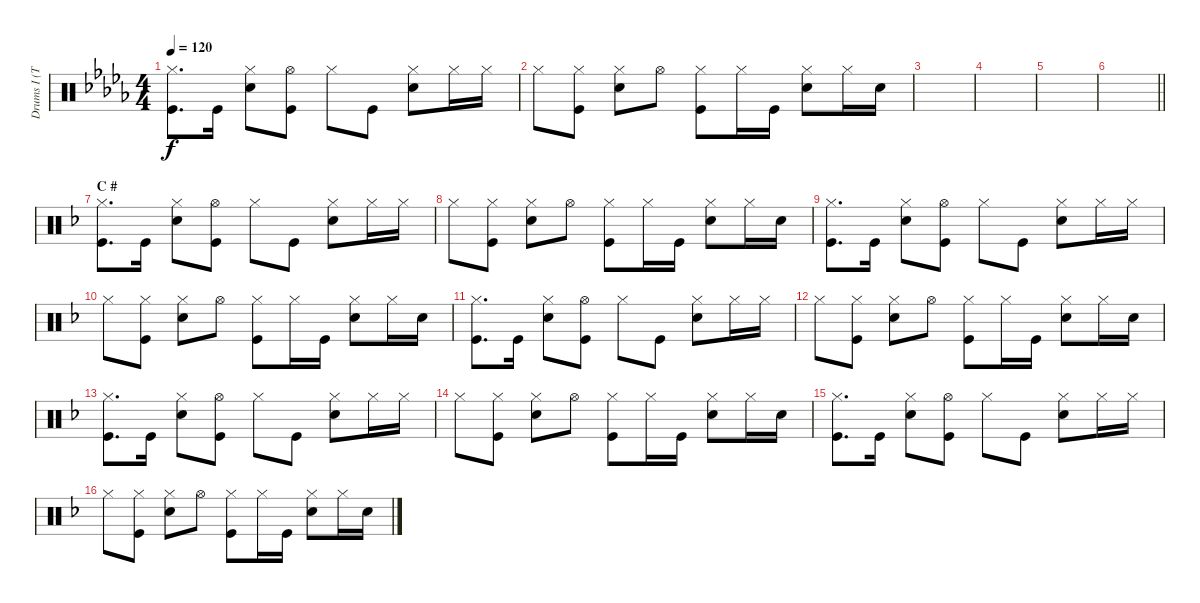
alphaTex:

\track ("Drums I (Tainaka Ritsu)" "Drums I (T") {instrument percussion}
\staff {score}
\articulation defaults
\ts (4 4)
\tempo 120
\clef neutral
\ks db
("Hi-Hat (closed)" "Kick (hit)").8{d dy f} "Kick (hit)".16 ("Hi-Hat (closed)" "Snare (hit) 2").8 ("Hi-Hat (open)" "Kick (hit)").8 "Hi-Hat (closed)".8 "Kick (hit)".8 ("Hi-Hat (closed)" "Snare (hit) 2").8 "Hi-Hat (closed)".16 "Hi-Hat (closed)".16 |
"Hi-Hat (closed)".8 ("Hi-Hat (closed)" "Kick (hit)").8 ("Hi-Hat (closed)" "Snare (hit) 2").8 "Hi-Hat (open)".8 ("Hi-Hat (closed)" "Kick (hit)").8 "Hi-Hat (closed)".16 "Kick (hit)".16 ("Hi-Hat (closed)" "Snare (hit) 2").8 "Hi-Hat (closed)".16 "Snare (hit) 2".16 |
|
|
|
\barLineRight lightlight
|
\section ("" "C #")
\ks f
("Hi-Hat (closed)" "Kick (hit)").8{d} "Kick (hit)".16 ("Hi-Hat (closed)" "Snare (hit) 2").8 ("Hi-Hat (open)" "Kick (hit)").8 "Hi-Hat (closed)".8 "Kick (hit)".8 ("Hi-Hat (closed)" "Snare (hit) 2").8 "Hi-Hat (closed)".16 "Hi-Hat (closed)".16 |
"Hi-Hat (closed)".8 ("Hi-Hat (closed)" "Kick (hit)").8 ("Hi-Hat (closed)" "Snare (hit) 2").8 "Hi-Hat (open)".8 ("Hi-Hat (closed)" "Kick (hit)").8 "Hi-Hat (closed)".16 "Kick (hit)".16 ("Hi-Hat (closed)" "Snare (hit) 2").8 "Hi-Hat (closed)".16 "Snare (hit) 2".16 |
("Hi-Hat (closed)" "Kick (hit)").8{d} "Kick (hit)".16 ("Hi-Hat (closed)" "Snare (hit) 2").8 ("Hi-Hat (open)" "Kick (hit)").8 "Hi-Hat (closed)".8 "Kick (hit)".8 ("Hi-Hat (closed)" "Snare (hit) 2").8 "Hi-Hat (closed)".16 "Hi-Hat (closed)".16 |
"Hi-Hat (closed)".8 ("Hi-Hat (closed)" "Kick (hit)").8 ("Hi-Hat (closed)" "Snare (hit) 2").8 "Hi-Hat (open)".8 ("Hi-Hat (closed)" "Kick (hit)").8 "Hi-Hat (closed)".16 "Kick (hit)".16 ("Hi-Hat (closed)" "Snare (hit) 2").8 "Hi-Hat (closed)".16 "Snare (hit) 2".16 |
("Hi-Hat (closed)" "Kick (hit)").8{d} "Kick (hit)".16 ("Hi-Hat (closed)" "Snare (hit) 2").8 ("Hi-Hat (open)" "Kick (hit)").8 "Hi-Hat (closed)".8 "Kick (hit)".8 ("Hi-Hat (closed)" "Snare (hit) 2").8 "Hi-Hat (closed)".16 "Hi-Hat (closed)".16 |
"Hi-Hat (closed)".8 ("Hi-Hat (closed)" "Kick (hit)").8 ("Hi-Hat (closed)" "Snare (hit) 2").8 "Hi-Hat (open)".8 ("Hi-Hat (closed)" "Kick (hit)").8 "Hi-Hat (closed)".16 "Kick (hit)".16 ("Hi-Hat (closed)" "Snare (hit) 2").8 "Hi-Hat (closed)".16 "Snare (hit) 2".16 |
("Hi-Hat (closed)" "Kick (hit)").8{d} "Kick (hit)".16 ("Hi-Hat (closed)" "Snare (hit) 2").8 ("Hi-Hat (open)" "Kick (hit)").8 "Hi-Hat (closed)".8 "Kick (hit)".8 ("Hi-Hat (closed)" "Snare (hit) 2").8 "Hi-Hat (closed)".16 "Hi-Hat (closed)".16 |
"Hi-Hat (closed)".8 ("Hi-Hat (closed)" "Kick (hit)").8 ("Hi-Hat (closed)" "Snare (hit) 2").8 "Hi-Hat (open)".8 ("Hi-Hat (closed)" "Kick (hit)").8 "Hi-Hat (closed)".16 "Kick (hit)".16 ("Hi-Hat (closed)" "Snare (hit) 2").8 "Hi-Hat (closed)".16 "Snare (hit) 2".16 |
("Hi-Hat (closed)" "Kick (hit)").8{d} "Kick (hit)".16 ("Hi-Hat (closed)" "Snare (hit) 2").8 ("Hi-Hat (open)" "Kick (hit)").8 "Hi-Hat (closed)".8 "Kick (hit)".8 ("Hi-Hat (closed)" "Snare (hit) 2").8 "Hi-Hat (closed)".16 "Hi-Hat (closed)".16 |
"Hi-Hat (closed)".8 ("Hi-Hat (closed)" "Kick (hit)").8 ("Hi-Hat (closed)" "Snare (hit) 2").8 "Hi-Hat (open)".8 ("Hi-Hat (closed)" "Kick (hit)").8 "Hi-Hat (closed)".16 "Kick (hit)".16 ("Hi-Hat (closed)" "Snare (hit) 2").8 "Hi-Hat (closed)".16 "Snare (hit) 2".16
